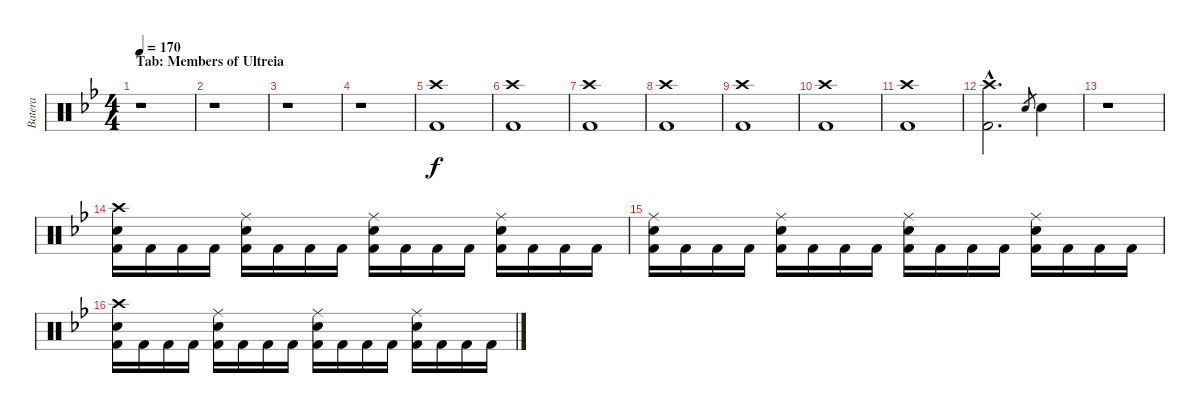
\track ("Batera" "Batera") {instrument percussion}
\staff {score}
\articulation defaults
\ts (4 4)
\section ("" "Tab: Members of Ultreia")
\tempo 170
\clef neutral
\ks bb
r.1{dy f} |
r.1 |
r.1 |
r.1 |
("Crash high (hit)" "Kick (hit) 2").1 |
("Crash high (hit)" "Kick (hit) 2").1 |
("Crash high (hit)" "Kick (hit) 2").1 |
("Crash high (hit)" "Kick (hit) 2").1 |
("Crash high (hit)" "Kick (hit) 2").1 |
("Crash high (hit)" "Kick (hit) 2").1 |
("Crash high (hit)" "Kick (hit) 2").1 |
("Crash high (hit)"{hac} "Kick (hit) 2"{hac}).2{d} "Electric Snare (hit)".8{gr} "Electric Snare (hit)".4 |
r.1 |
("Crash high (hit)" "Electric Snare (hit)" "Kick (hit) 2").16 "Kick (hit) 2".16 "Kick (hit) 2".16 "Kick (hit) 2".16 ("Ride (middle)" "Electric Snare (hit)" "Kick (hit) 2").16 "Kick (hit) 2".16 "Kick (hit) 2".16 "Kick (hit) 2".16 ("Ride (middle)" "Electric Snare (hit)" "Kick (hit) 2").16 "Kick (hit) 2".16 "Kick (hit) 2".16 "Kick (hit) 2".16 ("Ride (middle)" "Electric Snare (hit)" "Kick (hit) 2").16 "Kick (hit) 2".16 "Kick (hit) 2".16 "Kick (hit) 2".16 |
("Ride (middle)" "Electric Snare (hit)" "Kick (hit) 2").16 "Kick (hit) 2".16 "Kick (hit) 2".16 "Kick (hit) 2".16 ("Ride (middle)" "Electric Snare (hit)" "Kick (hit) 2").16 "Kick (hit) 2".16 "Kick (hit) 2".16 "Kick (hit) 2".16 ("Ride (middle)" "Electric Snare (hit)" "Kick (hit) 2").16 "Kick (hit) 2".16 "Kick (hit) 2".16 "Kick (hit) 2".16 ("Ride (middle)" "Electric Snare (hit)" "Kick (hit) 2").16 "Kick (hit) 2".16 "Kick (hit) 2".16 "Kick (hit) 2".16 |
("Crash high (hit)" "Electric Snare (hit)" "Kick (hit) 2").16 "Kick (hit) 2".16 "Kick (hit) 2".16 "Kick (hit) 2".16 ("Ride (middle)" "Electric Snare (hit)" "Kick (hit) 2").16 "Kick (hit) 2".16 "Kick (hit) 2".16 "Kick (hit) 2".16 ("Ride (middle)" "Electric Snare (hit)" "Kick (hit) 2").16 "Kick (hit) 2".16 "Kick (hit) 2".16 "Kick (hit) 2".16 ("Ride (middle)" "Electric Snare (hit)" "Kick (hit) 2").16 "Kick (hit) 2".16 "Kick (hit) 2".16 "Kick (hit) 2".16
